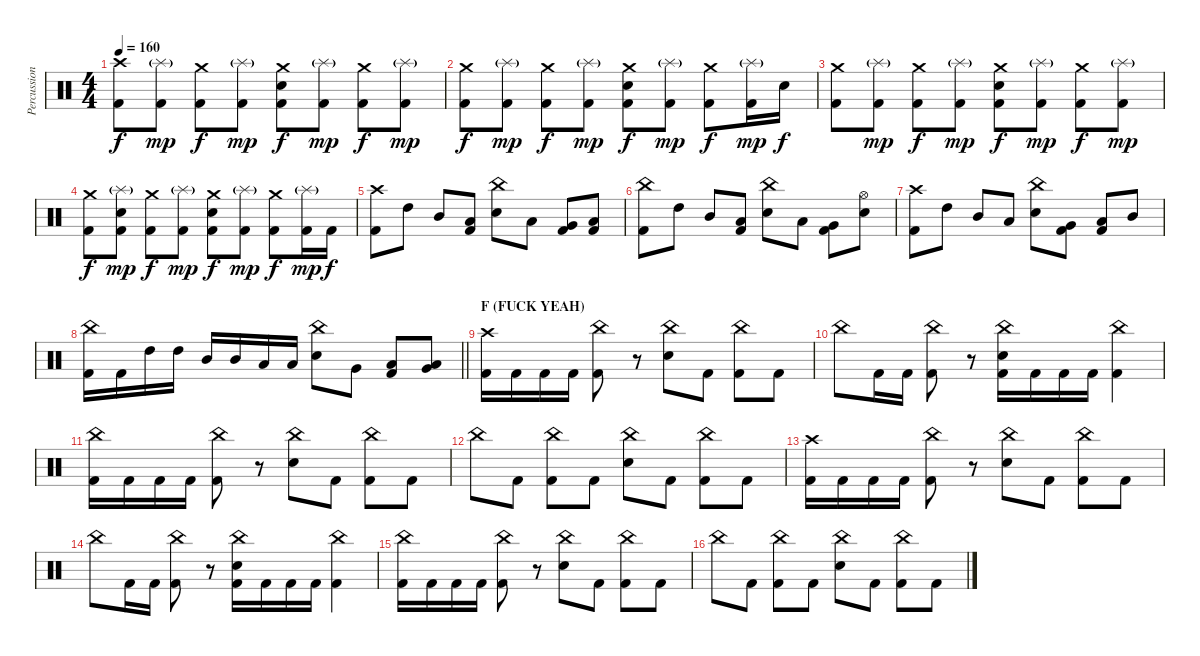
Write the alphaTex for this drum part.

\track ("Percussion" "Percussion") {instrument percussion}
\staff {score}
\articulation defaults
\ts (4 4)
\tempo 160
\clef neutral
\ks c
("Crash high (hit)" "Kick (hit) 2").8{dy f} ("Splash (hit)"{g} "Kick (hit) 2").8{dy mp} ("Crash medium (hit)" "Kick (hit) 2").8{dy f} ("Splash (hit)"{g} "Kick (hit) 2").8{dy mp} ("Crash medium (hit)" "Electric Snare (hit)" "Kick (hit) 2").8{dy f} ("Splash (hit)"{g} "Kick (hit) 2").8{dy mp} ("Crash medium (hit)" "Kick (hit) 2").8{dy f} ("Splash (hit)"{g} "Kick (hit) 2").8{dy mp} |
("Crash medium (hit)" "Kick (hit) 2").8{dy f} ("Splash (hit)"{g} "Kick (hit) 2").8{dy mp} ("Crash medium (hit)" "Kick (hit) 2").8{dy f} ("Splash (hit)"{g} "Kick (hit) 2").8{dy mp} ("Crash medium (hit)" "Electric Snare (hit)" "Kick (hit) 2").8{dy f} ("Splash (hit)"{g} "Kick (hit) 2").8{dy mp} ("Crash medium (hit)" "Kick (hit) 2").8{dy f} ("Splash (hit)"{g} "Kick (hit) 2").16{dy mp} "Electric Snare (hit)".16{dy f} |
("Crash medium (hit)" "Kick (hit) 2").8 ("Splash (hit)"{g} "Kick (hit) 2").8{dy mp} ("Crash medium (hit)" "Kick (hit) 2").8{dy f} ("Splash (hit)"{g} "Kick (hit) 2").8{dy mp} ("Crash medium (hit)" "Electric Snare (hit)" "Kick (hit) 2").8{dy f} ("Splash (hit)"{g} "Kick (hit) 2").8{dy mp} ("Crash medium (hit)" "Kick (hit) 2").8{dy f} ("Splash (hit)"{g} "Kick (hit) 2").8{dy mp} |
("Crash medium (hit)" "Kick (hit) 2").8{dy f} ("Splash (hit)"{g} "Electric Snare (hit)" "Kick (hit) 2").8{dy mp} ("Crash medium (hit)" "Kick (hit) 2").8{dy f} ("Splash (hit)"{g} "Kick (hit) 2").8{dy mp} ("Crash medium (hit)" "Electric Snare (hit)" "Kick (hit) 2").8{dy f} ("Splash (hit)"{g} "Kick (hit) 2").8{dy mp} ("Crash medium (hit)" "Kick (hit) 2").8{dy f} ("Splash (hit)"{g} "Kick (hit) 2").16{dy mp} "Kick (hit) 2".16{dy f} |
("Crash high (hit)" "Kick (hit) 2").8 "High Tom (hit)".8 "Mid Tom (hit)".8 ("Low Tom (hit)" "Kick (hit) 2").8 ("China (hit)" "Electric Snare (hit)").8 "Low Tom (hit)".8 ("Very Low Tom (hit)" "Kick (hit) 2").8 ("Low Floor Tom (hit)" "Kick (hit) 2").8 |
("China (hit)" "Kick (hit) 2").8 "High Tom (hit)".8 "Mid Tom (hit)".8 ("Low Tom (hit)" "Kick (hit) 2").8 ("China (hit)" "Electric Snare (hit)").8 "Low Tom (hit)".8 ("Very Low Tom (hit)" "Kick (hit) 2").8 ("Hi-Hat (open)" "Electric Snare (hit)").8 |
("Crash high (hit)" "Kick (hit) 2").8 "High Tom (hit)".8 "Mid Tom (hit)".8 "Low Tom (hit)".8 ("China (hit)" "Electric Snare (hit)").8 ("Very Low Tom (hit)" "Kick (hit) 2").8 ("Low Tom (hit)" "Kick (hit) 2").8 "Mid Tom (hit)".8 |
\barLineRight lightlight
("China (hit)" "Kick (hit) 2").16 "Kick (hit) 2".16 "High Tom (hit)".16 "High Tom (hit)".16 "Mid Tom (hit)".16 "Mid Tom (hit)".16 "Low Tom (hit)".16 "Low Tom (hit)".16 ("China (hit)" "Electric Snare (hit)").8 "Very Low Tom (hit)".8 ("Low Floor Tom (hit)" "Kick (hit) 2").8 ("Very Low Tom (hit)" "Low Floor Tom (hit)").8 |
\section ("" "F (FUCK YEAH)")
("Crash high (hit)" "Kick (hit) 2").16 "Kick (hit) 2".16 "Kick (hit) 2".16 "Kick (hit) 2".16 ("China (hit)" "Kick (hit) 2").8 r.8 ("China (hit)" "Electric Snare (hit)").8 "Kick (hit) 2".8 ("China (hit)" "Kick (hit) 2").8 "Kick (hit) 2".8 |
"China (hit)".8 "Kick (hit) 2".16 "Kick (hit) 2".16 ("China (hit)" "Kick (hit) 2").8 r.8 ("China (hit)" "Electric Snare (hit)" "Kick (hit) 2").16 "Kick (hit) 2".16 "Kick (hit) 2".16 "Kick (hit) 2".16 ("China (hit)" "Kick (hit) 2").4 |
("China (hit)" "Kick (hit) 2").16 "Kick (hit) 2".16 "Kick (hit) 2".16 "Kick (hit) 2".16 ("China (hit)" "Kick (hit) 2").8 r.8 ("China (hit)" "Electric Snare (hit)").8 "Kick (hit) 2".8 ("China (hit)" "Kick (hit) 2").8 "Kick (hit) 2".8 |
"China (hit)".8 "Kick (hit) 2".8 ("China (hit)" "Kick (hit) 2").8 "Kick (hit) 2".8 ("China (hit)" "Electric Snare (hit)").8 "Kick (hit) 2".8 ("China (hit)" "Kick (hit) 2").8 "Kick (hit) 2".8 |
("Crash high (hit)" "Kick (hit) 2").16 "Kick (hit) 2".16 "Kick (hit) 2".16 "Kick (hit) 2".16 ("China (hit)" "Kick (hit) 2").8 r.8 ("China (hit)" "Electric Snare (hit)").8 "Kick (hit) 2".8 ("China (hit)" "Kick (hit) 2").8 "Kick (hit) 2".8 |
"China (hit)".8 "Kick (hit) 2".16 "Kick (hit) 2".16 ("China (hit)" "Kick (hit) 2").8 r.8 ("China (hit)" "Electric Snare (hit)" "Kick (hit) 2").16 "Kick (hit) 2".16 "Kick (hit) 2".16 "Kick (hit) 2".16 ("China (hit)" "Kick (hit) 2").4 |
("China (hit)" "Kick (hit) 2").16 "Kick (hit) 2".16 "Kick (hit) 2".16 "Kick (hit) 2".16 ("China (hit)" "Kick (hit) 2").8 r.8 ("China (hit)" "Electric Snare (hit)").8 "Kick (hit) 2".8 ("China (hit)" "Kick (hit) 2").8 "Kick (hit) 2".8 |
"China (hit)".8 "Kick (hit) 2".8 ("China (hit)" "Kick (hit) 2").8 "Kick (hit) 2".8 ("China (hit)" "Electric Snare (hit)").8 "Kick (hit) 2".8 ("China (hit)" "Kick (hit) 2").8 "Kick (hit) 2".8
